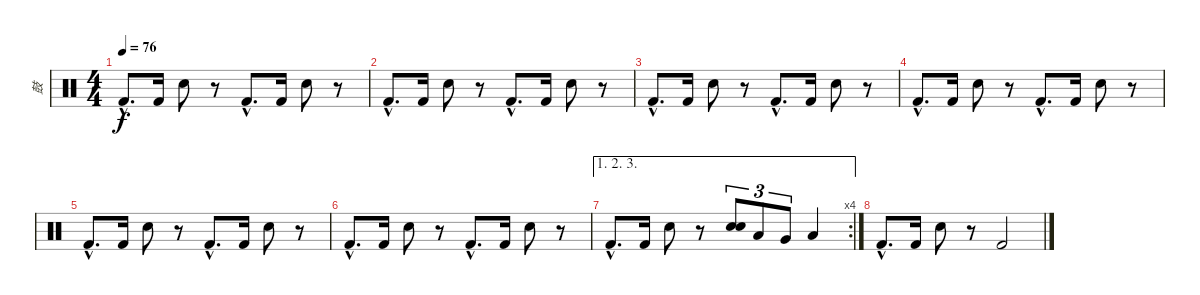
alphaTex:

\track ("鼓" "鼓") {instrument percussion}
\staff {score}
\articulation defaults
\ts (4 4)
\tempo 76
\clef neutral
\ks c "Kick (hit) 2"{hac}.8{d dy f} "Kick (hit) 2".16 "Electric Snare (hit)".8
r.8 "Kick (hit) 2"{hac}.8{d} "Kick (hit) 2".16 "Electric Snare (hit)".8 r.8 |
"Kick (hit) 2"{hac}.8{d} "Kick (hit) 2".16 "Electric Snare (hit)".8 r.8 "Kick (hit) 2"{hac}.8{d} "Kick (hit) 2".16 "Electric Snare (hit)".8 r.8 |
"Kick (hit) 2"{hac}.8{d} "Kick (hit) 2".16 "Electric Snare (hit)".8 r.8 "Kick (hit) 2"{hac}.8{d} "Kick (hit) 2".16 "Electric Snare (hit)".8 r.8 |
"Kick (hit) 2"{hac}.8{d} "Kick (hit) 2".16 "Electric Snare (hit)".8 r.8 "Kick (hit) 2"{hac}.8{d} "Kick (hit) 2".16 "Electric Snare (hit)".8 r.8 |
"Kick (hit) 2"{hac}.8{d} "Kick (hit) 2".16 "Electric Snare (hit)".8 r.8 "Kick (hit) 2"{hac}.8{d} "Kick (hit) 2".16 "Electric Snare (hit)".8 r.8 |
"Kick (hit) 2"{hac}.8{d} "Kick (hit) 2".16 "Electric Snare (hit)".8 r.8 "Kick (hit) 2"{hac}.8{d} "Kick (hit) 2".16 "Electric Snare (hit)".8 r.8 |
\ae (1 2 3)
\rc 4 "Kick (hit) 2"{hac}.8{d} "Kick (hit) 2".16 "Electric Snare (hit)".8
r.8 ("Electric Snare (hit)" "Electric Snare (hit)").8{tu (3 2)} "Low Tom (hit)".8{tu (3 2)} "Very Low Tom (hit)".8{tu (3 2)} "Low Floor Tom (hit)".4 |
"Kick (hit) 2"{hac}.8{d} "Kick (hit) 2".16 "Electric Snare (hit)".8 r.8 "Kick (hit) 2".2
